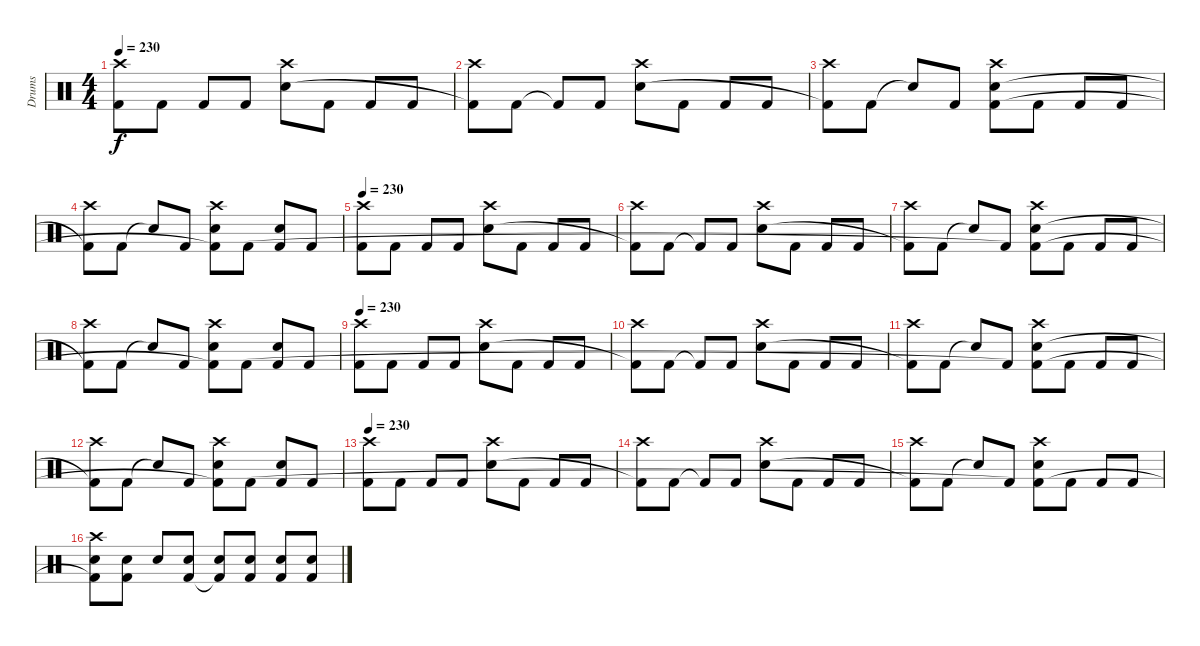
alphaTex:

\track ("Drums" "Drums") {instrument percussion}
\staff {score}
\articulation defaults
\ts (4 4)
\tempo 230
\clef neutral
\ks c
("Crash high (hit)" "Kick (hit) 2").8{dy f} "Kick (hit) 2".8 "Kick (hit) 2".8 "Kick (hit) 2".8 ("Crash high (hit)" "Electric Snare (hit)").8 "Kick (hit) 2".8 "Kick (hit) 2".8 "Kick (hit) 2".8 |
("Crash high (hit)" "Kick (hit) 2"{t}).8 "Kick (hit) 2".8 "Kick (hit) 2"{t}.8 "Kick (hit) 2".8 ("Crash high (hit)" "Electric Snare (hit)").8 "Kick (hit) 2".8 "Kick (hit) 2".8 "Kick (hit) 2".8 |
("Crash high (hit)" "Kick (hit) 2"{t}).8 "Kick (hit) 2".8 "Snare (hit)"{t}.8 "Kick (hit) 2".8 ("Crash high (hit)" "Electric Snare (hit)" "Kick (hit) 2").8 "Kick (hit) 2".8 "Kick (hit) 2".8 "Kick (hit) 2".8 |
("Crash high (hit)" "Kick (hit) 2"{t}).8 "Kick (hit) 2".8 "Snare (hit)"{t}.8 "Kick (hit) 2".8 ("Crash high (hit)" "Electric Snare (hit)" "Kick (hit) 2"{t}).8 "Kick (hit) 2".8 ("Electric Snare (hit)" "Kick (hit) 2").8 "Kick (hit) 2".8 |
\tempo 230
("Crash high (hit)" "Kick (hit) 2").8 "Kick (hit) 2".8 "Kick (hit) 2".8 "Kick (hit) 2".8 ("Crash high (hit)" "Electric Snare (hit)").8 "Kick (hit) 2".8 "Kick (hit) 2".8 "Kick (hit) 2".8 |
("Crash high (hit)" "Kick (hit) 2"{t}).8 "Kick (hit) 2".8 "Kick (hit) 2"{t}.8 "Kick (hit) 2".8 ("Crash high (hit)" "Electric Snare (hit)").8 "Kick (hit) 2".8 "Kick (hit) 2".8 "Kick (hit) 2".8 |
("Crash high (hit)" "Kick (hit) 2"{t}).8 "Kick (hit) 2".8 "Snare (hit)"{t}.8 "Kick (hit) 2".8 ("Crash high (hit)" "Electric Snare (hit)" "Kick (hit) 2"{t}).8 "Kick (hit) 2".8 "Kick (hit) 2".8 "Kick (hit) 2".8 |
("Crash high (hit)" "Kick (hit) 2"{t}).8 "Kick (hit) 2".8 "Snare (hit)"{t}.8 "Kick (hit) 2".8 ("Crash high (hit)" "Electric Snare (hit)" "Kick (hit) 2"{t}).8 "Kick (hit) 2".8 ("Electric Snare (hit)" "Kick (hit) 2").8 "Kick (hit) 2".8 |
\tempo 230
("Crash high (hit)" "Kick (hit) 2").8 "Kick (hit) 2".8 "Kick (hit) 2".8 "Kick (hit) 2".8 ("Crash high (hit)" "Electric Snare (hit)").8 "Kick (hit) 2".8 "Kick (hit) 2".8 "Kick (hit) 2".8 |
("Crash high (hit)" "Kick (hit) 2"{t}).8 "Kick (hit) 2".8 "Kick (hit) 2"{t}.8 "Kick (hit) 2".8 ("Crash high (hit)" "Electric Snare (hit)").8 "Kick (hit) 2".8 "Kick (hit) 2".8 "Kick (hit) 2".8 |
("Crash high (hit)" "Kick (hit) 2"{t}).8 "Kick (hit) 2".8 "Snare (hit)"{t}.8 "Kick (hit) 2".8 ("Crash high (hit)" "Electric Snare (hit)" "Kick (hit) 2"{t}).8 "Kick (hit) 2".8 "Kick (hit) 2".8 "Kick (hit) 2".8 |
("Crash high (hit)" "Kick (hit) 2"{t}).8 "Kick (hit) 2".8 "Snare (hit)"{t}.8 "Kick (hit) 2".8 ("Crash high (hit)" "Electric Snare (hit)" "Kick (hit) 2"{t}).8 "Kick (hit) 2".8 ("Electric Snare (hit)" "Kick (hit) 2").8 "Kick (hit) 2".8 |
\tempo 230
("Crash high (hit)" "Kick (hit) 2").8 "Kick (hit) 2".8 "Kick (hit) 2".8 "Kick (hit) 2".8 ("Crash high (hit)" "Electric Snare (hit)").8 "Kick (hit) 2".8 "Kick (hit) 2".8 "Kick (hit) 2".8 |
("Crash high (hit)" "Kick (hit) 2"{t}).8 "Kick (hit) 2".8 "Kick (hit) 2"{t}.8 "Kick (hit) 2".8 ("Crash high (hit)" "Electric Snare (hit)").8 "Kick (hit) 2".8 "Kick (hit) 2".8 "Kick (hit) 2".8 |
("Crash high (hit)" "Kick (hit) 2"{t}).8 "Kick (hit) 2".8 "Snare (hit)"{t}.8 "Kick (hit) 2".8 ("Crash high (hit)" "Electric Snare (hit)" "Kick (hit) 2"{t}).8 "Kick (hit) 2".8 "Kick (hit) 2".8 "Kick (hit) 2".8 |
("Crash high (hit)" "Electric Snare (hit)" "Kick (hit) 2"{t}).8 ("Electric Snare (hit)" "Kick (hit) 2").8 "Electric Snare (hit)".8 ("Electric Snare (hit)" "Kick (hit) 2").8 ("Electric Snare (hit)" "Kick (hit) 2"{t}).8 ("Electric Snare (hit)" "Kick (hit) 2").8 ("Electric Snare (hit)" "Kick (hit) 2").8 ("Electric Snare (hit)" "Kick (hit) 2").8
